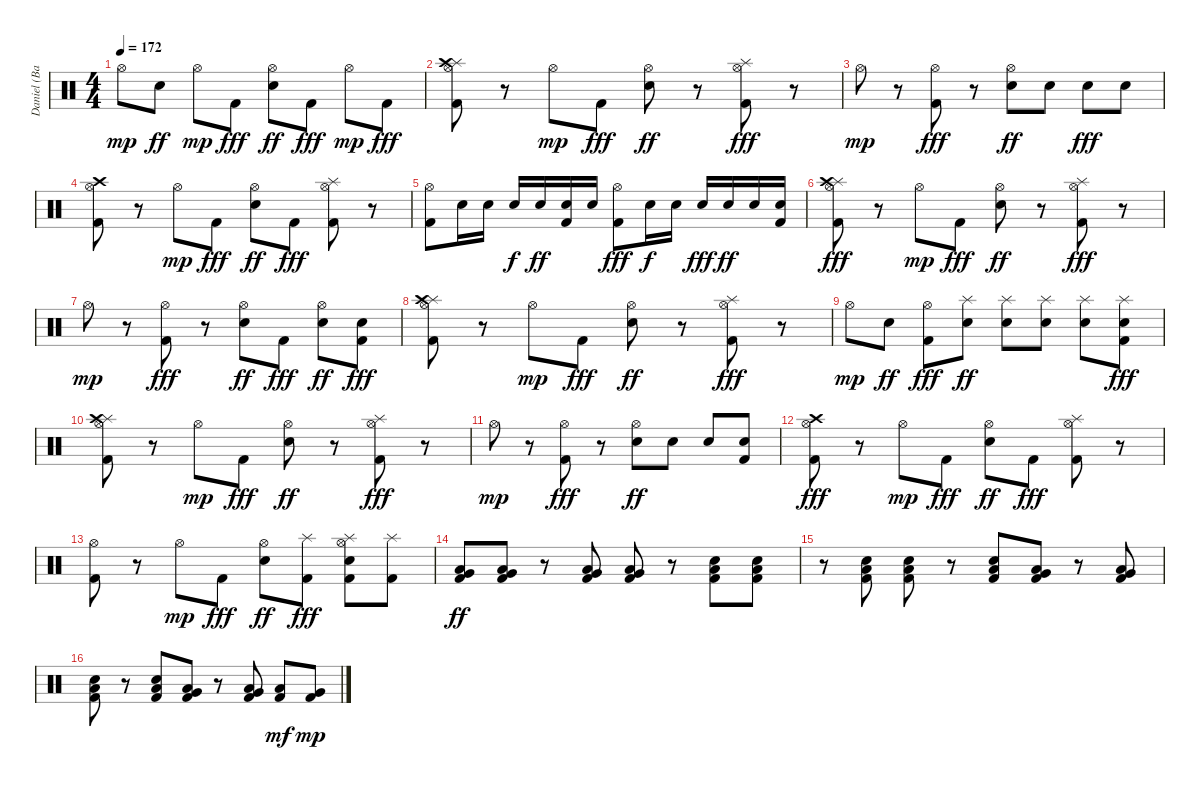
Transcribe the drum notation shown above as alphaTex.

\track ("Daniel (Bateria)" "Daniel (Ba") {instrument percussion}
\staff {score}
\articulation defaults
\ts (4 4)
\tempo 172
\clef neutral
\ks c "Hi-Hat (open)".8{dy mp} "Electric Snare (hit)".8{dy ff} "Hi-Hat (open)".8{dy mp} "Kick (hit) 2".8{dy fff}
("Hi-Hat (open)" "Electric Snare (hit)").8{dy ff} "Kick (hit) 2".8{dy fff} "Hi-Hat (open)".8{dy mp} "Kick (hit) 2".8{dy fff} |
("Splash (hit)" "Hi-Hat (open)" "Crash high (hit)" "Kick (hit) 2").8 r.8 "Hi-Hat (open)".8{dy mp} "Kick (hit) 2".8{dy fff} ("Hi-Hat (open)" "Electric Snare (hit)").8{dy ff} r.8 ("Splash (hit)" "Hi-Hat (open)" "Kick (hit) 2").8{dy fff} r.8 |
"Hi-Hat (open)".8{dy mp} r.8 ("Hi-Hat (open)" "Kick (hit) 2").8{dy fff} r.8 ("Hi-Hat (open)" "Electric Snare (hit)").8{dy ff} "Electric Snare (hit)".8 "Electric Snare (hit)".8{dy fff} "Electric Snare (hit)".8 |
("Hi-Hat (open)" "Crash high (hit)" "Kick (hit) 2").8 r.8 "Hi-Hat (open)".8{dy mp} "Kick (hit) 2".8{dy fff} ("Hi-Hat (open)" "Electric Snare (hit)").8{dy ff} "Kick (hit) 2".8{dy fff} ("Splash (hit)" "Hi-Hat (open)" "Kick (hit) 2").8 r.8 |
("Hi-Hat (open)" "Kick (hit) 2").8 "Electric Snare (hit)".16 "Electric Snare (hit)".16 "Electric Snare (hit)".16{dy f} "Electric Snare (hit)".16{dy ff} ("Electric Snare (hit)" "Kick (hit) 2").16 "Electric Snare (hit)".16 ("Hi-Hat (open)" "Kick (hit) 2").8{dy fff} "Electric Snare (hit)".16{dy f} "Electric Snare (hit)".16 "Electric Snare (hit)".16{dy fff} "Electric Snare (hit)".16{dy ff} "Electric Snare (hit)".16 ("Electric Snare (hit)" "Kick (hit) 2").16 |
("Splash (hit)" "Hi-Hat (open)" "Crash high (hit)" "Kick (hit) 2").8{dy fff} r.8 "Hi-Hat (open)".8{dy mp} "Kick (hit) 2".8{dy fff} ("Hi-Hat (open)" "Electric Snare (hit)").8{dy ff} r.8 ("Splash (hit)" "Hi-Hat (open)" "Kick (hit) 2").8{dy fff} r.8 |
"Hi-Hat (open)".8{dy mp} r.8 ("Hi-Hat (open)" "Kick (hit) 2").8{dy fff} r.8 ("Hi-Hat (open)" "Electric Snare (hit)").8{dy ff} "Kick (hit) 2".8{dy fff} ("Hi-Hat (open)" "Electric Snare (hit)").8{dy ff} ("Electric Snare (hit)" "Kick (hit) 2").8{dy fff} |
("Splash (hit)" "Hi-Hat (open)" "Crash high (hit)" "Kick (hit) 2").8 r.8 "Hi-Hat (open)".8{dy mp} "Kick (hit) 2".8{dy fff} ("Hi-Hat (open)" "Electric Snare (hit)").8{dy ff} r.8 ("Splash (hit)" "Hi-Hat (open)" "Kick (hit) 2").8{dy fff} r.8 |
"Hi-Hat (open)".8{dy mp} "Electric Snare (hit)".8{dy ff} ("Hi-Hat (open)" "Kick (hit) 2").8{dy fff} ("Splash (hit)" "Electric Snare (hit)").8{dy ff} ("Splash (hit)" "Electric Snare (hit)").8 ("Splash (hit)" "Electric Snare (hit)").8 ("Splash (hit)" "Electric Snare (hit)").8 ("Splash (hit)" "Electric Snare (hit)" "Kick (hit) 2").8{dy fff} |
("Splash (hit)" "Hi-Hat (open)" "Crash high (hit)" "Kick (hit) 2").8 r.8 "Hi-Hat (open)".8{dy mp} "Kick (hit) 2".8{dy fff} ("Hi-Hat (open)" "Electric Snare (hit)").8{dy ff} r.8 ("Splash (hit)" "Hi-Hat (open)" "Kick (hit) 2").8{dy fff} r.8 |
"Hi-Hat (open)".8{dy mp} r.8 ("Hi-Hat (open)" "Kick (hit) 2").8{dy fff} r.8 ("Hi-Hat (open)" "Electric Snare (hit)").8{dy ff} "Electric Snare (hit)".8 "Electric Snare (hit)".8 ("Electric Snare (hit)" "Kick (hit) 2").8 |
("Hi-Hat (open)" "Crash high (hit)" "Kick (hit) 2").8{dy fff} r.8 "Hi-Hat (open)".8{dy mp} "Kick (hit) 2".8{dy fff} ("Hi-Hat (open)" "Electric Snare (hit)").8{dy ff} "Kick (hit) 2".8{dy fff} ("Splash (hit)" "Hi-Hat (open)" "Kick (hit) 2").8 r.8 |
("Hi-Hat (open)" "Kick (hit) 2").8 r.8 "Hi-Hat (open)".8{dy mp} "Kick (hit) 2".8{dy fff} ("Hi-Hat (open)" "Electric Snare (hit)").8{dy ff} ("Splash (hit)" "Kick (hit) 2").8{dy fff} ("Splash (hit)" "Hi-Hat (open)" "Electric Snare (hit)" "Kick (hit) 2").8 ("Splash (hit)" "Kick (hit) 2").8 |
("Low Floor Tom (hit)" "Very Low Tom (hit)" "Kick (hit) 2").8{dy ff} ("Low Floor Tom (hit)" "Very Low Tom (hit)" "Kick (hit) 2").8 r.8 ("Low Floor Tom (hit)" "Very Low Tom (hit)" "Kick (hit) 2").8 ("Low Floor Tom (hit)" "Very Low Tom (hit)" "Kick (hit) 2").8 r.8 ("Low Tom (hit)" "Electric Snare (hit)" "Kick (hit) 2").8 ("Low Tom (hit)" "Electric Snare (hit)" "Kick (hit) 2").8 |
r.8 ("Low Tom (hit)" "Electric Snare (hit)" "Kick (hit) 2").8 ("Low Tom (hit)" "Electric Snare (hit)" "Kick (hit) 2").8 r.8 ("Low Tom (hit)" "Electric Snare (hit)" "Kick (hit) 2").8 ("Low Floor Tom (hit)" "Very Low Tom (hit)" "Kick (hit) 2").8 r.8 ("Low Floor Tom (hit)" "Very Low Tom (hit)" "Kick (hit) 2").8 |
("Low Tom (hit)" "Electric Snare (hit)" "Kick (hit) 2").8 r.8 ("Low Tom (hit)" "Electric Snare (hit)" "Kick (hit) 2").8 ("Low Floor Tom (hit)" "Very Low Tom (hit)" "Kick (hit) 2").8 r.8 ("Low Floor Tom (hit)" "Very Low Tom (hit)" "Kick (hit) 2").8 ("Low Tom (hit)" "Kick (hit) 2").8{dy mf} ("Very Low Tom (hit)" "Kick (hit) 2").8{dy mp}
